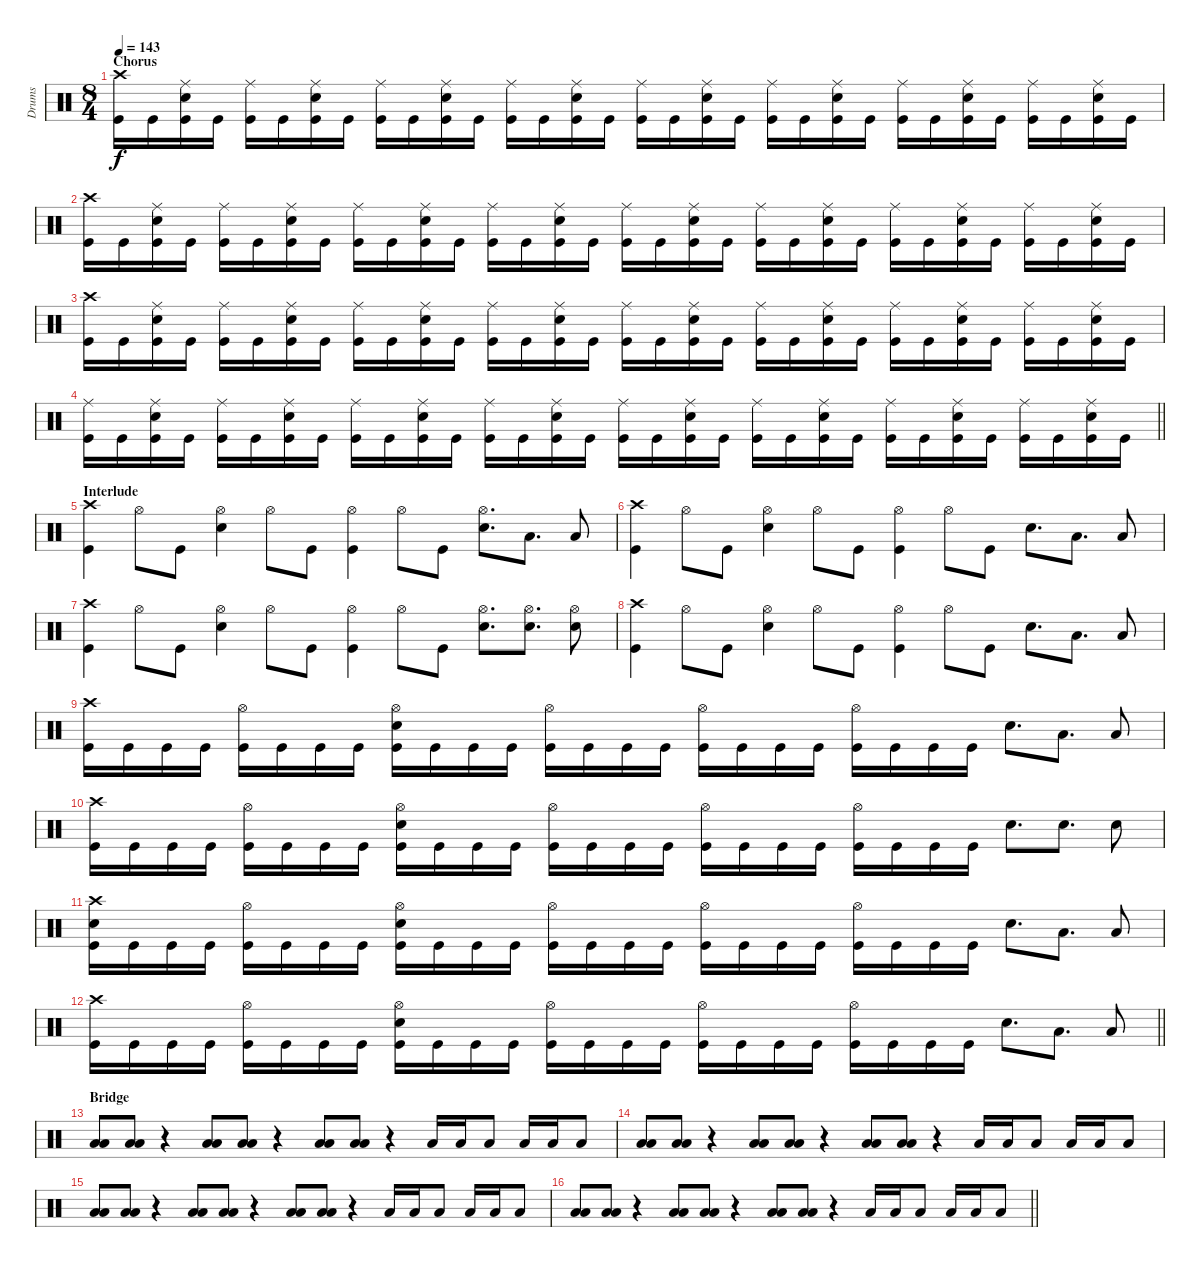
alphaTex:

\track ("Drums" "Drums") {instrument percussion}
\staff {score}
\articulation defaults
\ts (8 4)
\section ("" "Chorus")
\tempo 143
\clef neutral
\ks c
("Crash high (hit)" "Kick (hit)").16{dy f} "Kick (hit)".16 ("Ride (middle)" "Snare (hit) 2" "Kick (hit)").16 "Kick (hit)".16 ("Ride (middle)" "Kick (hit)").16 "Kick (hit)".16 ("Ride (middle)" "Snare (hit) 2" "Kick (hit)").16 "Kick (hit)".16 ("Ride (middle)" "Kick (hit)").16 "Kick (hit)".16 ("Ride (middle)" "Snare (hit) 2" "Kick (hit)").16 "Kick (hit)".16 ("Ride (middle)" "Kick (hit)").16 "Kick (hit)".16 ("Ride (middle)" "Snare (hit) 2" "Kick (hit)").16 "Kick (hit)".16 ("Ride (middle)" "Kick (hit)").16 "Kick (hit)".16 ("Ride (middle)" "Snare (hit) 2" "Kick (hit)").16 "Kick (hit)".16 ("Ride (middle)" "Kick (hit)").16 "Kick (hit)".16 ("Ride (middle)" "Snare (hit) 2" "Kick (hit)").16 "Kick (hit)".16 ("Ride (middle)" "Kick (hit)").16 "Kick (hit)".16 ("Ride (middle)" "Snare (hit) 2" "Kick (hit)").16 "Kick (hit)".16 ("Ride (middle)" "Kick (hit)").16 "Kick (hit)".16 ("Ride (middle)" "Snare (hit) 2" "Kick (hit)").16 "Kick (hit)".16 |
("Crash high (hit)" "Kick (hit)").16 "Kick (hit)".16 ("Ride (middle)" "Snare (hit) 2" "Kick (hit)").16 "Kick (hit)".16 ("Ride (middle)" "Kick (hit)").16 "Kick (hit)".16 ("Ride (middle)" "Snare (hit) 2" "Kick (hit)").16 "Kick (hit)".16 ("Ride (middle)" "Kick (hit)").16 "Kick (hit)".16 ("Ride (middle)" "Snare (hit) 2" "Kick (hit)").16 "Kick (hit)".16 ("Ride (middle)" "Kick (hit)").16 "Kick (hit)".16 ("Ride (middle)" "Snare (hit) 2" "Kick (hit)").16 "Kick (hit)".16 ("Ride (middle)" "Kick (hit)").16 "Kick (hit)".16 ("Ride (middle)" "Snare (hit) 2" "Kick (hit)").16 "Kick (hit)".16 ("Ride (middle)" "Kick (hit)").16 "Kick (hit)".16 ("Ride (middle)" "Snare (hit) 2" "Kick (hit)").16 "Kick (hit)".16 ("Ride (middle)" "Kick (hit)").16 "Kick (hit)".16 ("Ride (middle)" "Snare (hit) 2" "Kick (hit)").16 "Kick (hit)".16 ("Ride (middle)" "Kick (hit)").16 "Kick (hit)".16 ("Ride (middle)" "Snare (hit) 2" "Kick (hit)").16 "Kick (hit)".16 |
("Crash high (hit)" "Kick (hit)").16 "Kick (hit)".16 ("Ride (middle)" "Snare (hit) 2" "Kick (hit)").16 "Kick (hit)".16 ("Ride (middle)" "Kick (hit)").16 "Kick (hit)".16 ("Ride (middle)" "Snare (hit) 2" "Kick (hit)").16 "Kick (hit)".16 ("Ride (middle)" "Kick (hit)").16 "Kick (hit)".16 ("Ride (middle)" "Snare (hit) 2" "Kick (hit)").16 "Kick (hit)".16 ("Ride (middle)" "Kick (hit)").16 "Kick (hit)".16 ("Ride (middle)" "Snare (hit) 2" "Kick (hit)").16 "Kick (hit)".16 ("Ride (middle)" "Kick (hit)").16 "Kick (hit)".16 ("Ride (middle)" "Snare (hit) 2" "Kick (hit)").16 "Kick (hit)".16 ("Ride (middle)" "Kick (hit)").16 "Kick (hit)".16 ("Ride (middle)" "Snare (hit) 2" "Kick (hit)").16 "Kick (hit)".16 ("Ride (middle)" "Kick (hit)").16 "Kick (hit)".16 ("Ride (middle)" "Snare (hit) 2" "Kick (hit)").16 "Kick (hit)".16 ("Ride (middle)" "Kick (hit)").16 "Kick (hit)".16 ("Ride (middle)" "Snare (hit) 2" "Kick (hit)").16 "Kick (hit)".16 |
\barLineRight lightlight
("Ride (middle)" "Kick (hit)").16 "Kick (hit)".16 ("Ride (middle)" "Snare (hit) 2" "Kick (hit)").16 "Kick (hit)".16 ("Ride (middle)" "Kick (hit)").16 "Kick (hit)".16 ("Ride (middle)" "Snare (hit) 2" "Kick (hit)").16 "Kick (hit)".16 ("Ride (middle)" "Kick (hit)").16 "Kick (hit)".16 ("Ride (middle)" "Snare (hit) 2" "Kick (hit)").16 "Kick (hit)".16 ("Ride (middle)" "Kick (hit)").16 "Kick (hit)".16 ("Ride (middle)" "Snare (hit) 2" "Kick (hit)").16 "Kick (hit)".16 ("Ride (middle)" "Kick (hit)").16 "Kick (hit)".16 ("Ride (middle)" "Snare (hit) 2" "Kick (hit)").16 "Kick (hit)".16 ("Ride (middle)" "Kick (hit)").16 "Kick (hit)".16 ("Ride (middle)" "Snare (hit) 2" "Kick (hit)").16 "Kick (hit)".16 ("Ride (middle)" "Kick (hit)").16 "Kick (hit)".16 ("Ride (middle)" "Snare (hit) 2" "Kick (hit)").16 "Kick (hit)".16 ("Ride (middle)" "Kick (hit)").16 "Kick (hit)".16 ("Ride (middle)" "Snare (hit) 2" "Kick (hit)").16 "Kick (hit)".16 |
\section ("" "Interlude")
("Crash high (hit)" "Kick (hit)").4 "Hi-Hat (open)".8 "Kick (hit)".8 ("Hi-Hat (open)" "Snare (hit) 2").4 "Hi-Hat (open)".8 "Kick (hit)".8 ("Hi-Hat (open)" "Kick (hit)").4 "Hi-Hat (open)".8 "Kick (hit)".8 ("Hi-Hat (open)" "Snare (hit) 2").8{d} "Low Tom (hit)".8{d} "Low Floor Tom (hit)".8 |
("Crash high (hit)" "Kick (hit)").4 "Hi-Hat (open)".8 "Kick (hit)".8 ("Hi-Hat (open)" "Snare (hit) 2").4 "Hi-Hat (open)".8 "Kick (hit)".8 ("Hi-Hat (open)" "Kick (hit)").4 "Hi-Hat (open)".8 "Kick (hit)".8 "Snare (hit) 2".8{d} "Low Tom (hit)".8{d} "Low Floor Tom (hit)".8 |
("Crash high (hit)" "Kick (hit)").4 "Hi-Hat (open)".8 "Kick (hit)".8 ("Hi-Hat (open)" "Snare (hit) 2").4 "Hi-Hat (open)".8 "Kick (hit)".8 ("Hi-Hat (open)" "Kick (hit)").4 "Hi-Hat (open)".8 "Kick (hit)".8 ("Hi-Hat (open)" "Snare (hit) 2").8{d} ("Hi-Hat (open)" "Snare (hit) 2").8{d} ("Hi-Hat (open)" "Snare (hit) 2").8 |
("Crash high (hit)" "Kick (hit)").4 "Hi-Hat (open)".8 "Kick (hit)".8 ("Hi-Hat (open)" "Snare (hit) 2").4 "Hi-Hat (open)".8 "Kick (hit)".8 ("Hi-Hat (open)" "Kick (hit)").4 "Hi-Hat (open)".8 "Kick (hit)".8 "Snare (hit) 2".8{d} "Low Tom (hit)".8{d} "Low Floor Tom (hit)".8 |
("Crash high (hit)" "Kick (hit)").16 "Kick (hit)".16 "Kick (hit)".16 "Kick (hit)".16 ("Hi-Hat (open)" "Kick (hit)").16 "Kick (hit)".16 "Kick (hit)".16 "Kick (hit)".16 ("Hi-Hat (open)" "Snare (hit) 2" "Kick (hit)").16 "Kick (hit)".16 "Kick (hit)".16 "Kick (hit)".16 ("Hi-Hat (open)" "Kick (hit)").16 "Kick (hit)".16 "Kick (hit)".16 "Kick (hit)".16 ("Hi-Hat (open)" "Kick (hit)").16 "Kick (hit)".16 "Kick (hit)".16 "Kick (hit)".16 ("Hi-Hat (open)" "Kick (hit)").16 "Kick (hit)".16 "Kick (hit)".16 "Kick (hit)".16 "Snare (hit) 2".8{d} "Low Tom (hit)".8{d} "Low Floor Tom (hit)".8 |
("Crash high (hit)" "Kick (hit)").16 "Kick (hit)".16 "Kick (hit)".16 "Kick (hit)".16 ("Hi-Hat (open)" "Kick (hit)").16 "Kick (hit)".16 "Kick (hit)".16 "Kick (hit)".16 ("Hi-Hat (open)" "Snare (hit) 2" "Kick (hit)").16 "Kick (hit)".16 "Kick (hit)".16 "Kick (hit)".16 ("Hi-Hat (open)" "Kick (hit)").16 "Kick (hit)".16 "Kick (hit)".16 "Kick (hit)".16 ("Hi-Hat (open)" "Kick (hit)").16 "Kick (hit)".16 "Kick (hit)".16 "Kick (hit)".16 ("Hi-Hat (open)" "Kick (hit)").16 "Kick (hit)".16 "Kick (hit)".16 "Kick (hit)".16 "Snare (hit) 2".8{d} "Snare (hit) 2".8{d} "Snare (hit) 2".8 |
("Crash high (hit)" "Snare (hit) 2" "Kick (hit)").16 "Kick (hit)".16 "Kick (hit)".16 "Kick (hit)".16 ("Hi-Hat (open)" "Kick (hit)").16 "Kick (hit)".16 "Kick (hit)".16 "Kick (hit)".16 ("Hi-Hat (open)" "Snare (hit) 2" "Kick (hit)").16 "Kick (hit)".16 "Kick (hit)".16 "Kick (hit)".16 ("Hi-Hat (open)" "Kick (hit)").16 "Kick (hit)".16 "Kick (hit)".16 "Kick (hit)".16 ("Hi-Hat (open)" "Kick (hit)").16 "Kick (hit)".16 "Kick (hit)".16 "Kick (hit)".16 ("Hi-Hat (open)" "Kick (hit)").16 "Kick (hit)".16 "Kick (hit)".16 "Kick (hit)".16 "Snare (hit) 2".8{d} "Low Tom (hit)".8{d} "Low Floor Tom (hit)".8 |
\barLineRight lightlight
("Crash high (hit)" "Kick (hit)").16 "Kick (hit)".16 "Kick (hit)".16 "Kick (hit)".16 ("Hi-Hat (open)" "Kick (hit)").16 "Kick (hit)".16 "Kick (hit)".16 "Kick (hit)".16 ("Hi-Hat (open)" "Snare (hit) 2" "Kick (hit)").16 "Kick (hit)".16 "Kick (hit)".16 "Kick (hit)".16 ("Hi-Hat (open)" "Kick (hit)").16 "Kick (hit)".16 "Kick (hit)".16 "Kick (hit)".16 ("Hi-Hat (open)" "Kick (hit)").16 "Kick (hit)".16 "Kick (hit)".16 "Kick (hit)".16 ("Hi-Hat (open)" "Kick (hit)").16 "Kick (hit)".16 "Kick (hit)".16 "Kick (hit)".16 "Snare (hit) 2".8{d} "Low Tom (hit)".8{d} "Low Floor Tom (hit)".8 |
\section ("" "Bridge")
("Low Floor Tom (hit)" "Low Floor Tom (hit)").8 ("Low Floor Tom (hit)" "Low Floor Tom (hit)").8 r.4 ("Low Floor Tom (hit)" "Low Floor Tom (hit)").8 ("Low Floor Tom (hit)" "Low Floor Tom (hit)").8 r.4 ("Low Floor Tom (hit)" "Low Floor Tom (hit)").8 ("Low Floor Tom (hit)" "Low Floor Tom (hit)").8 r.4 "Low Floor Tom (hit)".16 "Low Floor Tom (hit)".16 "Low Floor Tom (hit)".8 "Low Floor Tom (hit)".16 "Low Floor Tom (hit)".16 "Low Floor Tom (hit)".8 |
("Low Floor Tom (hit)" "Low Floor Tom (hit)").8 ("Low Floor Tom (hit)" "Low Floor Tom (hit)").8 r.4 ("Low Floor Tom (hit)" "Low Floor Tom (hit)").8 ("Low Floor Tom (hit)" "Low Floor Tom (hit)").8 r.4 ("Low Floor Tom (hit)" "Low Floor Tom (hit)").8 ("Low Floor Tom (hit)" "Low Floor Tom (hit)").8 r.4 "Low Floor Tom (hit)".16 "Low Floor Tom (hit)".16 "Low Floor Tom (hit)".8 "Low Floor Tom (hit)".16 "Low Floor Tom (hit)".16 "Low Floor Tom (hit)".8 |
("Low Floor Tom (hit)" "Low Floor Tom (hit)").8 ("Low Floor Tom (hit)" "Low Floor Tom (hit)").8 r.4 ("Low Floor Tom (hit)" "Low Floor Tom (hit)").8 ("Low Floor Tom (hit)" "Low Floor Tom (hit)").8 r.4 ("Low Floor Tom (hit)" "Low Floor Tom (hit)").8 ("Low Floor Tom (hit)" "Low Floor Tom (hit)").8 r.4 "Low Floor Tom (hit)".16 "Low Floor Tom (hit)".16 "Low Floor Tom (hit)".8 "Low Floor Tom (hit)".16 "Low Floor Tom (hit)".16 "Low Floor Tom (hit)".8 |
\barLineRight lightlight
("Low Floor Tom (hit)" "Low Floor Tom (hit)").8 ("Low Floor Tom (hit)" "Low Floor Tom (hit)").8 r.4 ("Low Floor Tom (hit)" "Low Floor Tom (hit)").8 ("Low Floor Tom (hit)" "Low Floor Tom (hit)").8 r.4 ("Low Floor Tom (hit)" "Low Floor Tom (hit)").8 ("Low Floor Tom (hit)" "Low Floor Tom (hit)").8 r.4 "Low Floor Tom (hit)".16 "Low Floor Tom (hit)".16 "Low Floor Tom (hit)".8 "Low Floor Tom (hit)".16 "Low Floor Tom (hit)".16 "Low Floor Tom (hit)".8
